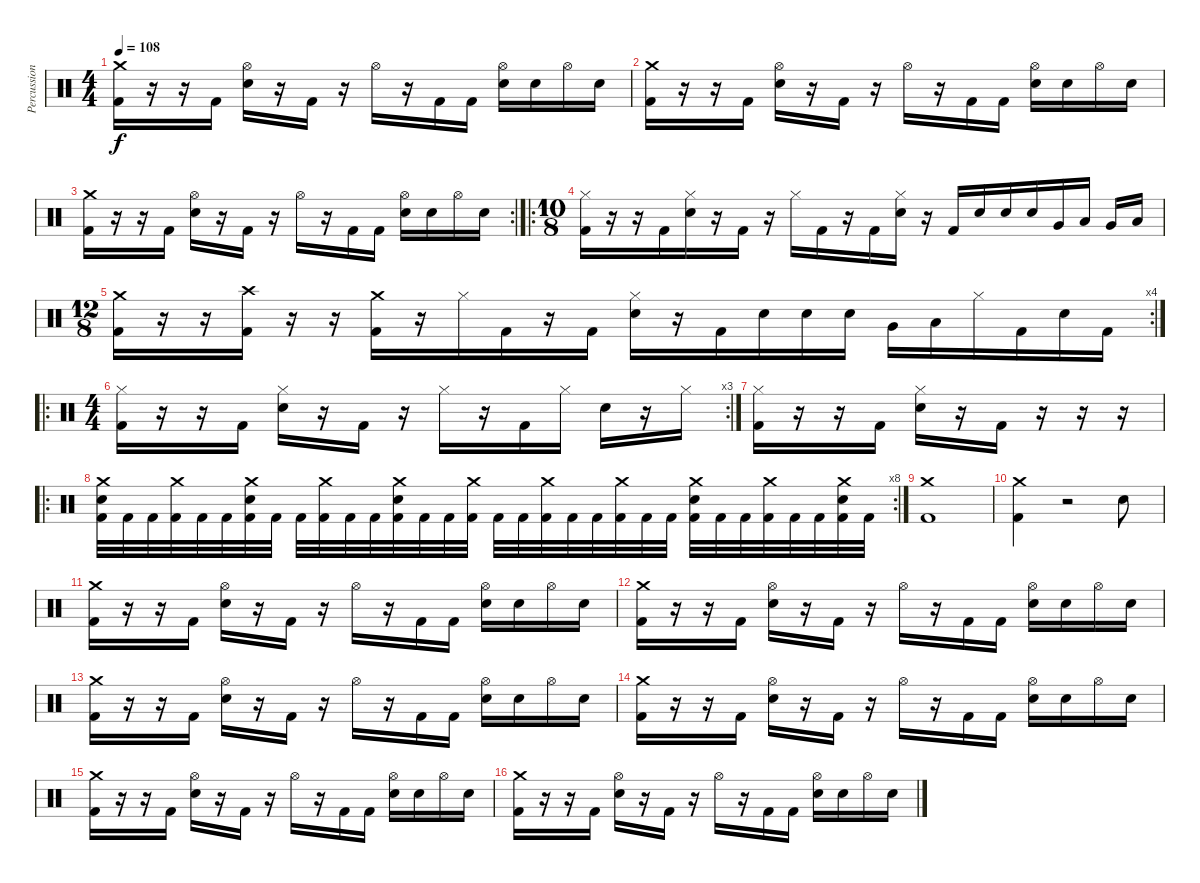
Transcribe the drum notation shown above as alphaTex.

\track ("Percussions" "Percussion") {instrument percussion}
\staff {score}
\articulation defaults
\ts (4 4)
\tempo 108
\clef neutral
\ks c
("Kick (hit) 2" "Crash medium (hit)").16{dy f} r.16 r.16 "Kick (hit) 2".16 ("Electric Snare (hit)" "Hi-Hat (open)").16 r.16 "Kick (hit) 2".16 r.16 "Hi-Hat (open)".16 r.16 "Kick (hit) 2".16 "Kick (hit) 2".16 ("Electric Snare (hit)" "Hi-Hat (open)").16 "Electric Snare (hit)".16 "Hi-Hat (open)".16 "Electric Snare (hit)".16 |
("Kick (hit) 2" "Crash medium (hit)").16 r.16 r.16 "Kick (hit) 2".16 ("Electric Snare (hit)" "Hi-Hat (open)").16 r.16 "Kick (hit) 2".16 r.16 "Hi-Hat (open)".16 r.16 "Kick (hit) 2".16 "Kick (hit) 2".16 ("Electric Snare (hit)" "Hi-Hat (open)").16 "Electric Snare (hit)".16 "Hi-Hat (open)".16 "Electric Snare (hit)".16 |
\rc 2
("Kick (hit) 2" "Crash medium (hit)").16 r.16 r.16 "Kick (hit) 2".16 ("Electric Snare (hit)" "Hi-Hat (open)").16 r.16 "Kick (hit) 2".16 r.16 "Hi-Hat (open)".16 r.16 "Kick (hit) 2".16 "Kick (hit) 2".16 ("Electric Snare (hit)" "Hi-Hat (open)").16 "Electric Snare (hit)".16 "Hi-Hat (open)".16 "Electric Snare (hit)".16 |
\ro
\ts (10 8)
("Kick (hit) 2" "Hi-Hat (closed)").16 r.16 r.16 "Kick (hit) 2".16 ("Electric Snare (hit)" "Hi-Hat (closed)").16 r.16 "Kick (hit) 2".16 r.16 "Hi-Hat (closed)".16 "Kick (hit) 2".16 r.16 "Kick (hit) 2".16 ("Electric Snare (hit)" "Hi-Hat (closed)").16 r.16 "Kick (hit) 2".16 "Electric Snare (hit)".16 "Electric Snare (hit)".16 "Electric Snare (hit)".16 "Very Low Tom (hit)".16 "Low Floor Tom (hit)".16 "Very Low Tom (hit)".16 "Low Tom (hit)".16 |
\rc 4
\ts (12 8)
("Crash medium (hit)" "Kick (hit) 2").16 r.16 r.16 ("Crash high (hit)" "Kick (hit) 2").16 r.16 r.16 ("Kick (hit) 2" "Crash medium (hit)").16 r.16 "Hi-Hat (closed)".16 "Kick (hit) 2".16 r.16 "Kick (hit) 2".16 ("Electric Snare (hit)" "Hi-Hat (closed)").16 r.16 "Kick (hit) 2".16 "Electric Snare (hit)".16 "Electric Snare (hit)".16 "Electric Snare (hit)".16 "Very Low Tom (hit)".16 "Low Floor Tom (hit)".16 "Hi-Hat (closed)".16 "Kick (hit) 2".16 "Electric Snare (hit)".16 "Kick (hit) 2".16 |
\ro
\rc 3
\ts (4 4)
("Kick (hit) 2" "Hi-Hat (closed)").16 r.16 r.16 "Kick (hit) 2".16 ("Electric Snare (hit)" "Hi-Hat (closed)").16 r.16 "Kick (hit) 2".16 r.16 "Hi-Hat (closed)".16 r.16 "Kick (hit) 2".16 "Hi-Hat (closed)".16 "Electric Snare (hit)".16 r.16 "Hi-Hat (closed)".16 |
("Kick (hit) 2" "Hi-Hat (closed)").16 r.16 r.16 "Kick (hit) 2".16 ("Electric Snare (hit)" "Hi-Hat (closed)").16 r.16 "Kick (hit) 2".16 r.16 r.16 r.16 |
\ro
\rc 8
("Crash medium (hit)" "Electric Snare (hit)" "Kick (hit) 2").32 "Kick (hit) 2".32 "Kick (hit) 2".32 ("Crash medium (hit)" "Kick (hit) 2").32 "Kick (hit) 2".32 "Kick (hit) 2".32 ("Crash medium (hit)" "Electric Snare (hit)" "Kick (hit) 2").32 "Kick (hit) 2".32 "Kick (hit) 2".32 ("Crash medium (hit)" "Kick (hit) 2").32 "Kick (hit) 2".32 "Kick (hit) 2".32 ("Crash medium (hit)" "Electric Snare (hit)" "Kick (hit) 2").32 "Kick (hit) 2".32 "Kick (hit) 2".32 ("Crash medium (hit)" "Kick (hit) 2").32 "Kick (hit) 2".32 "Kick (hit) 2".32 ("Crash medium (hit)" "Kick (hit) 2").32 "Kick (hit) 2".32 "Kick (hit) 2".32 ("Crash medium (hit)" "Kick (hit) 2").32 "Kick (hit) 2".32 "Kick (hit) 2".32 ("Crash medium (hit)" "Electric Snare (hit)" "Kick (hit) 2").32 "Kick (hit) 2".32 "Kick (hit) 2".32 ("Crash medium (hit)" "Kick (hit) 2").32 "Kick (hit) 2".32 "Kick (hit) 2".32 ("Crash medium (hit)" "Electric Snare (hit)" "Kick (hit) 2").32 "Kick (hit) 2".32 |
("Kick (hit) 2" "Crash medium (hit)").1 |
("Kick (hit) 2" "Crash medium (hit)").4 r.2 "Electric Snare (hit)".8 |
("Kick (hit) 2" "Crash medium (hit)").16 r.16 r.16 "Kick (hit) 2".16 ("Electric Snare (hit)" "Hi-Hat (open)").16 r.16 "Kick (hit) 2".16 r.16 "Hi-Hat (open)".16 r.16 "Kick (hit) 2".16 "Kick (hit) 2".16 ("Electric Snare (hit)" "Hi-Hat (open)").16 "Electric Snare (hit)".16 "Hi-Hat (open)".16 "Electric Snare (hit)".16 |
("Kick (hit) 2" "Crash medium (hit)").16 r.16 r.16 "Kick (hit) 2".16 ("Electric Snare (hit)" "Hi-Hat (open)").16 r.16 "Kick (hit) 2".16 r.16 "Hi-Hat (open)".16 r.16 "Kick (hit) 2".16 "Kick (hit) 2".16 ("Electric Snare (hit)" "Hi-Hat (open)").16 "Electric Snare (hit)".16 "Hi-Hat (open)".16 "Electric Snare (hit)".16 |
("Kick (hit) 2" "Crash medium (hit)").16 r.16 r.16 "Kick (hit) 2".16 ("Electric Snare (hit)" "Hi-Hat (open)").16 r.16 "Kick (hit) 2".16 r.16 "Hi-Hat (open)".16 r.16 "Kick (hit) 2".16 "Kick (hit) 2".16 ("Electric Snare (hit)" "Hi-Hat (open)").16 "Electric Snare (hit)".16 "Hi-Hat (open)".16 "Electric Snare (hit)".16 |
("Kick (hit) 2" "Crash medium (hit)").16 r.16 r.16 "Kick (hit) 2".16 ("Electric Snare (hit)" "Hi-Hat (open)").16 r.16 "Kick (hit) 2".16 r.16 "Hi-Hat (open)".16 r.16 "Kick (hit) 2".16 "Kick (hit) 2".16 ("Electric Snare (hit)" "Hi-Hat (open)").16 "Electric Snare (hit)".16 "Hi-Hat (open)".16 "Electric Snare (hit)".16 |
("Kick (hit) 2" "Crash medium (hit)").16 r.16 r.16 "Kick (hit) 2".16 ("Electric Snare (hit)" "Hi-Hat (open)").16 r.16 "Kick (hit) 2".16 r.16 "Hi-Hat (open)".16 r.16 "Kick (hit) 2".16 "Kick (hit) 2".16 ("Electric Snare (hit)" "Hi-Hat (open)").16 "Electric Snare (hit)".16 "Hi-Hat (open)".16 "Electric Snare (hit)".16 |
("Kick (hit) 2" "Crash medium (hit)").16 r.16 r.16 "Kick (hit) 2".16 ("Electric Snare (hit)" "Hi-Hat (open)").16 r.16 "Kick (hit) 2".16 r.16 "Hi-Hat (open)".16 r.16 "Kick (hit) 2".16 "Kick (hit) 2".16 ("Electric Snare (hit)" "Hi-Hat (open)").16 "Electric Snare (hit)".16 "Hi-Hat (open)".16 "Electric Snare (hit)".16
